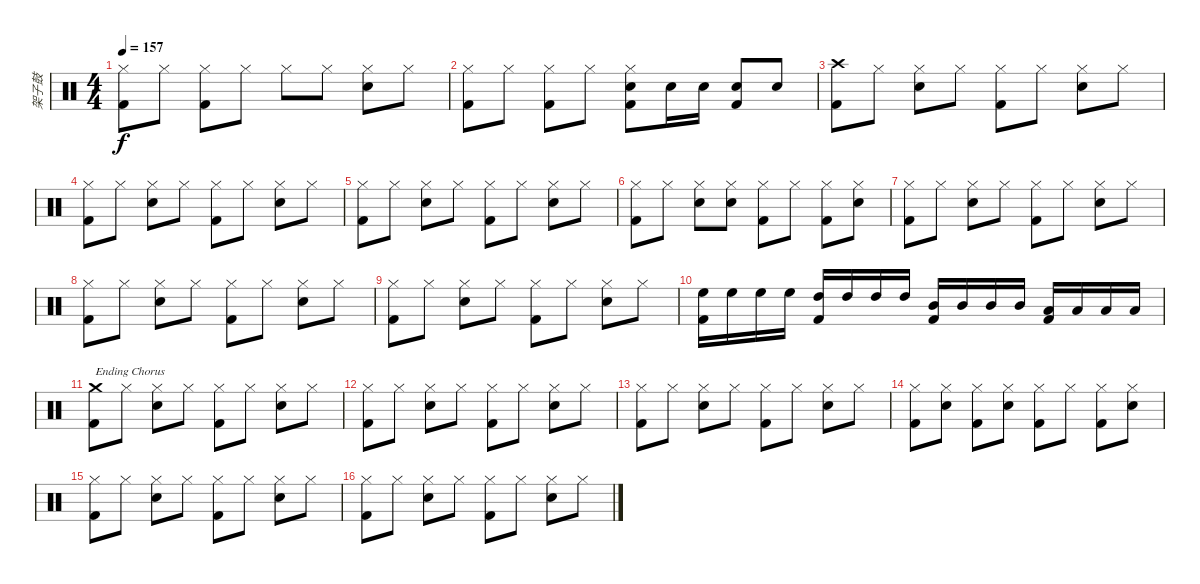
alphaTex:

\track ("架子鼓" "架子鼓") {instrument percussion}
\staff {score}
\articulation defaults
\ts (4 4)
\tempo 157
\clef neutral
\ks c
("Hi-Hat (closed)" "Kick (hit) 2").8{dy f} "Hi-Hat (closed)".8 ("Hi-Hat (closed)" "Kick (hit) 2").8 "Hi-Hat (closed)".8 "Hi-Hat (closed)".8 "Hi-Hat (closed)".8 ("Hi-Hat (closed)" "Snare (hit) 2").8 "Hi-Hat (closed)".8 |
("Hi-Hat (closed)" "Kick (hit) 2").8 "Hi-Hat (closed)".8 ("Hi-Hat (closed)" "Kick (hit) 2").8 "Hi-Hat (closed)".8 ("Hi-Hat (closed)" "Snare (hit) 2" "Kick (hit) 2").8 "Snare (hit) 2".16 "Snare (hit) 2".16 ("Snare (hit) 2" "Kick (hit) 2").8 "Snare (hit) 2".8 |
("Crash high (hit)" "Kick (hit) 2").8 "Hi-Hat (closed)".8 ("Hi-Hat (closed)" "Snare (hit) 2").8 "Hi-Hat (closed)".8 ("Hi-Hat (closed)" "Kick (hit) 2").8 "Hi-Hat (closed)".8 ("Hi-Hat (closed)" "Snare (hit) 2").8 "Hi-Hat (closed)".8 |
("Hi-Hat (closed)" "Kick (hit) 2").8 "Hi-Hat (closed)".8 ("Hi-Hat (closed)" "Snare (hit) 2").8 "Hi-Hat (closed)".8 ("Hi-Hat (closed)" "Kick (hit) 2").8 "Hi-Hat (closed)".8 ("Hi-Hat (closed)" "Snare (hit) 2").8 "Hi-Hat (closed)".8 |
("Hi-Hat (closed)" "Kick (hit) 2").8 "Hi-Hat (closed)".8 ("Hi-Hat (closed)" "Snare (hit) 2").8 "Hi-Hat (closed)".8 ("Hi-Hat (closed)" "Kick (hit) 2").8 "Hi-Hat (closed)".8 ("Hi-Hat (closed)" "Snare (hit) 2").8 "Hi-Hat (closed)".8 |
("Hi-Hat (closed)" "Kick (hit) 2").8 "Hi-Hat (closed)".8 ("Hi-Hat (closed)" "Snare (hit) 2").8 ("Hi-Hat (closed)" "Snare (hit) 2").8 ("Hi-Hat (closed)" "Kick (hit) 2").8 "Hi-Hat (closed)".8 ("Hi-Hat (closed)" "Kick (hit) 2").8 ("Hi-Hat (closed)" "Snare (hit) 2").8 |
("Hi-Hat (closed)" "Kick (hit) 2").8 "Hi-Hat (closed)".8 ("Hi-Hat (closed)" "Snare (hit) 2").8 "Hi-Hat (closed)".8 ("Hi-Hat (closed)" "Kick (hit) 2").8 "Hi-Hat (closed)".8 ("Hi-Hat (closed)" "Snare (hit) 2").8 "Hi-Hat (closed)".8 |
("Hi-Hat (closed)" "Kick (hit) 2").8 "Hi-Hat (closed)".8 ("Hi-Hat (closed)" "Snare (hit) 2").8 "Hi-Hat (closed)".8 ("Hi-Hat (closed)" "Kick (hit) 2").8 "Hi-Hat (closed)".8 ("Hi-Hat (closed)" "Snare (hit) 2").8 "Hi-Hat (closed)".8 |
("Hi-Hat (closed)" "Kick (hit) 2").8 "Hi-Hat (closed)".8 ("Hi-Hat (closed)" "Snare (hit) 2").8 "Hi-Hat (closed)".8 ("Hi-Hat (closed)" "Kick (hit) 2").8 "Hi-Hat (closed)".8 ("Hi-Hat (closed)" "Snare (hit) 2").8 "Hi-Hat (closed)".8 |
("High Floor Tom (hit)" "Kick (hit) 2").16 "High Floor Tom (hit)".16 "High Floor Tom (hit)".16 "High Floor Tom (hit)".16 ("High Tom (hit)" "Kick (hit) 2").16 "High Tom (hit)".16 "High Tom (hit)".16 "High Tom (hit)".16 ("Mid Tom (hit)" "Kick (hit) 2").16 "Mid Tom (hit)".16 "Mid Tom (hit)".16 "Mid Tom (hit)".16 ("Low Tom (hit)" "Kick (hit) 2").16 "Low Tom (hit)".16 "Low Tom (hit)".16 "Low Tom (hit)".16 |
("Crash medium (hit)" "Kick (hit) 2").8{txt "Ending Chorus"} "Hi-Hat (closed)".8 ("Hi-Hat (closed)" "Snare (hit) 2").8 "Hi-Hat (closed)".8 ("Hi-Hat (closed)" "Kick (hit) 2").8 "Hi-Hat (closed)".8 ("Hi-Hat (closed)" "Snare (hit) 2").8 "Hi-Hat (closed)".8 |
("Hi-Hat (closed)" "Kick (hit) 2").8 "Hi-Hat (closed)".8 ("Hi-Hat (closed)" "Snare (hit) 2").8 "Hi-Hat (closed)".8 ("Hi-Hat (closed)" "Kick (hit) 2").8 "Hi-Hat (closed)".8 ("Hi-Hat (closed)" "Snare (hit) 2").8 "Hi-Hat (closed)".8 |
("Hi-Hat (closed)" "Kick (hit) 2").8 "Hi-Hat (closed)".8 ("Hi-Hat (closed)" "Snare (hit) 2").8 "Hi-Hat (closed)".8 ("Hi-Hat (closed)" "Kick (hit) 2").8 "Hi-Hat (closed)".8 ("Hi-Hat (closed)" "Snare (hit) 2").8 "Hi-Hat (closed)".8 |
("Hi-Hat (closed)" "Kick (hit) 2").8 ("Hi-Hat (closed)" "Snare (hit) 2").8 ("Hi-Hat (closed)" "Kick (hit) 2").8 ("Hi-Hat (closed)" "Snare (hit) 2").8 ("Hi-Hat (closed)" "Kick (hit) 2").8 "Hi-Hat (closed)".8 ("Hi-Hat (closed)" "Kick (hit) 2").8 ("Hi-Hat (closed)" "Snare (hit) 2").8 |
("Hi-Hat (closed)" "Kick (hit) 2").8 "Hi-Hat (closed)".8 ("Hi-Hat (closed)" "Snare (hit) 2").8 "Hi-Hat (closed)".8 ("Hi-Hat (closed)" "Kick (hit) 2").8 "Hi-Hat (closed)".8 ("Hi-Hat (closed)" "Snare (hit) 2").8 "Hi-Hat (closed)".8 |
("Hi-Hat (closed)" "Kick (hit) 2").8 "Hi-Hat (closed)".8 ("Hi-Hat (closed)" "Snare (hit) 2").8 "Hi-Hat (closed)".8 ("Hi-Hat (closed)" "Kick (hit) 2").8 "Hi-Hat (closed)".8 ("Hi-Hat (closed)" "Snare (hit) 2").8 "Hi-Hat (closed)".8
